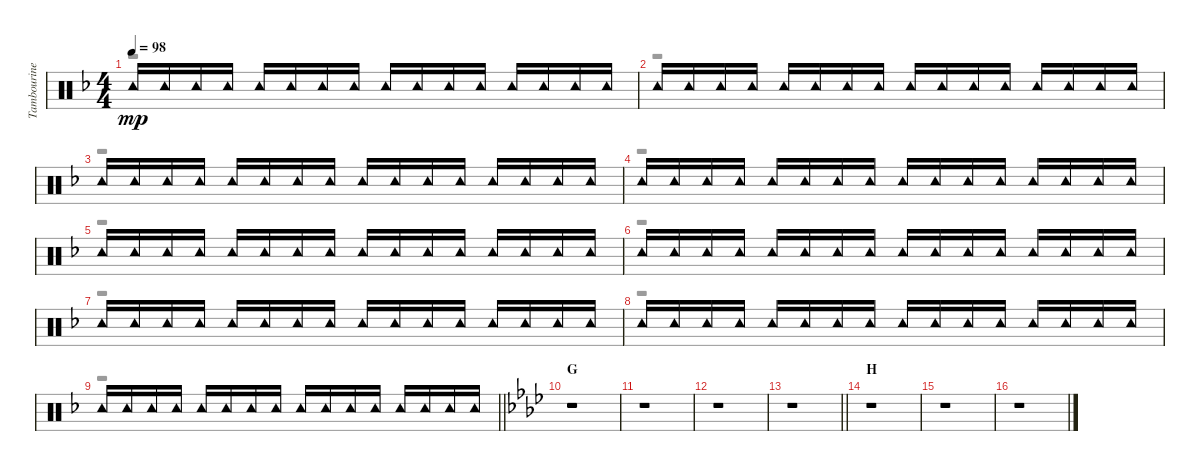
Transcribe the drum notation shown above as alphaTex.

\track ("Tambourine" "Tambourine") {instrument percussion}
\staff {score}
\articulation defaults
\voice
\ts (4 4)
\tempo 98
\clef neutral
\ks f "Tambourine (hit)".16{dy mp} "Tambourine (hit)".16 "Tambourine (hit)".16 "Tambourine (hit)".16 "Tambourine (hit)".16 "Tambourine (hit)".16 "Tambourine (hit)".16 "Tambourine (hit)".16 "Tambourine (hit)".16 "Tambourine (hit)".16 "Tambourine (hit)".16 "Tambourine (hit)".16 "Tambourine (hit)".16 "Tambourine (hit)".16 "Tambourine (hit)".16 "Tambourine (hit)".16
|
"Tambourine (hit)".16 "Tambourine (hit)".16 "Tambourine (hit)".16 "Tambourine (hit)".16 "Tambourine (hit)".16 "Tambourine (hit)".16 "Tambourine (hit)".16 "Tambourine (hit)".16 "Tambourine (hit)".16 "Tambourine (hit)".16 "Tambourine (hit)".16 "Tambourine (hit)".16 "Tambourine (hit)".16 "Tambourine (hit)".16 "Tambourine (hit)".16 "Tambourine (hit)".16 |
"Tambourine (hit)".16 "Tambourine (hit)".16 "Tambourine (hit)".16 "Tambourine (hit)".16 "Tambourine (hit)".16 "Tambourine (hit)".16 "Tambourine (hit)".16 "Tambourine (hit)".16 "Tambourine (hit)".16 "Tambourine (hit)".16 "Tambourine (hit)".16 "Tambourine (hit)".16 "Tambourine (hit)".16 "Tambourine (hit)".16 "Tambourine (hit)".16 "Tambourine (hit)".16 |
"Tambourine (hit)".16 "Tambourine (hit)".16 "Tambourine (hit)".16 "Tambourine (hit)".16 "Tambourine (hit)".16 "Tambourine (hit)".16 "Tambourine (hit)".16 "Tambourine (hit)".16 "Tambourine (hit)".16 "Tambourine (hit)".16 "Tambourine (hit)".16 "Tambourine (hit)".16 "Tambourine (hit)".16 "Tambourine (hit)".16 "Tambourine (hit)".16 "Tambourine (hit)".16 |
"Tambourine (hit)".16 "Tambourine (hit)".16 "Tambourine (hit)".16 "Tambourine (hit)".16 "Tambourine (hit)".16 "Tambourine (hit)".16 "Tambourine (hit)".16 "Tambourine (hit)".16 "Tambourine (hit)".16 "Tambourine (hit)".16 "Tambourine (hit)".16 "Tambourine (hit)".16 "Tambourine (hit)".16 "Tambourine (hit)".16 "Tambourine (hit)".16 "Tambourine (hit)".16 |
"Tambourine (hit)".16 "Tambourine (hit)".16 "Tambourine (hit)".16 "Tambourine (hit)".16 "Tambourine (hit)".16 "Tambourine (hit)".16 "Tambourine (hit)".16 "Tambourine (hit)".16 "Tambourine (hit)".16 "Tambourine (hit)".16 "Tambourine (hit)".16 "Tambourine (hit)".16 "Tambourine (hit)".16 "Tambourine (hit)".16 "Tambourine (hit)".16 "Tambourine (hit)".16 |
"Tambourine (hit)".16 "Tambourine (hit)".16 "Tambourine (hit)".16 "Tambourine (hit)".16 "Tambourine (hit)".16 "Tambourine (hit)".16 "Tambourine (hit)".16 "Tambourine (hit)".16 "Tambourine (hit)".16 "Tambourine (hit)".16 "Tambourine (hit)".16 "Tambourine (hit)".16 "Tambourine (hit)".16 "Tambourine (hit)".16 "Tambourine (hit)".16 "Tambourine (hit)".16 |
"Tambourine (hit)".16 "Tambourine (hit)".16 "Tambourine (hit)".16 "Tambourine (hit)".16 "Tambourine (hit)".16 "Tambourine (hit)".16 "Tambourine (hit)".16 "Tambourine (hit)".16 "Tambourine (hit)".16 "Tambourine (hit)".16 "Tambourine (hit)".16 "Tambourine (hit)".16 "Tambourine (hit)".16 "Tambourine (hit)".16 "Tambourine (hit)".16 "Tambourine (hit)".16 |
\barLineRight lightlight "Tambourine (hit)".16 "Tambourine (hit)".16 "Tambourine (hit)".16 "Tambourine (hit)".16 "Tambourine (hit)".16 "Tambourine (hit)".16 "Tambourine (hit)".16 "Tambourine (hit)".16 "Tambourine (hit)".16 "Tambourine (hit)".16 "Tambourine (hit)".16 "Tambourine (hit)".16 "Tambourine (hit)".16 "Tambourine (hit)".16 "Tambourine (hit)".16 "Tambourine (hit)".16
|
\section ("" "G")
\ks ab
r.1 |
r.1 |
r.1 |
\barLineRight lightlight
r.1 |
\section ("" "H")
r.1 |
r.1 |
r.1
\voice
\clef neutral
\ottava regular
\simile none
\ks f
r.1{dy f} |
r.1 |
r.1 |
r.1 |
r.1 |
r.1 |
r.1 |
r.1 |
\barLineRight lightlight
r.1 |
\ks ab
r.1 |
r.1 |
r.1 |
\barLineRight lightlight
r.1 |
r.1 |
r.1 |
r.1
